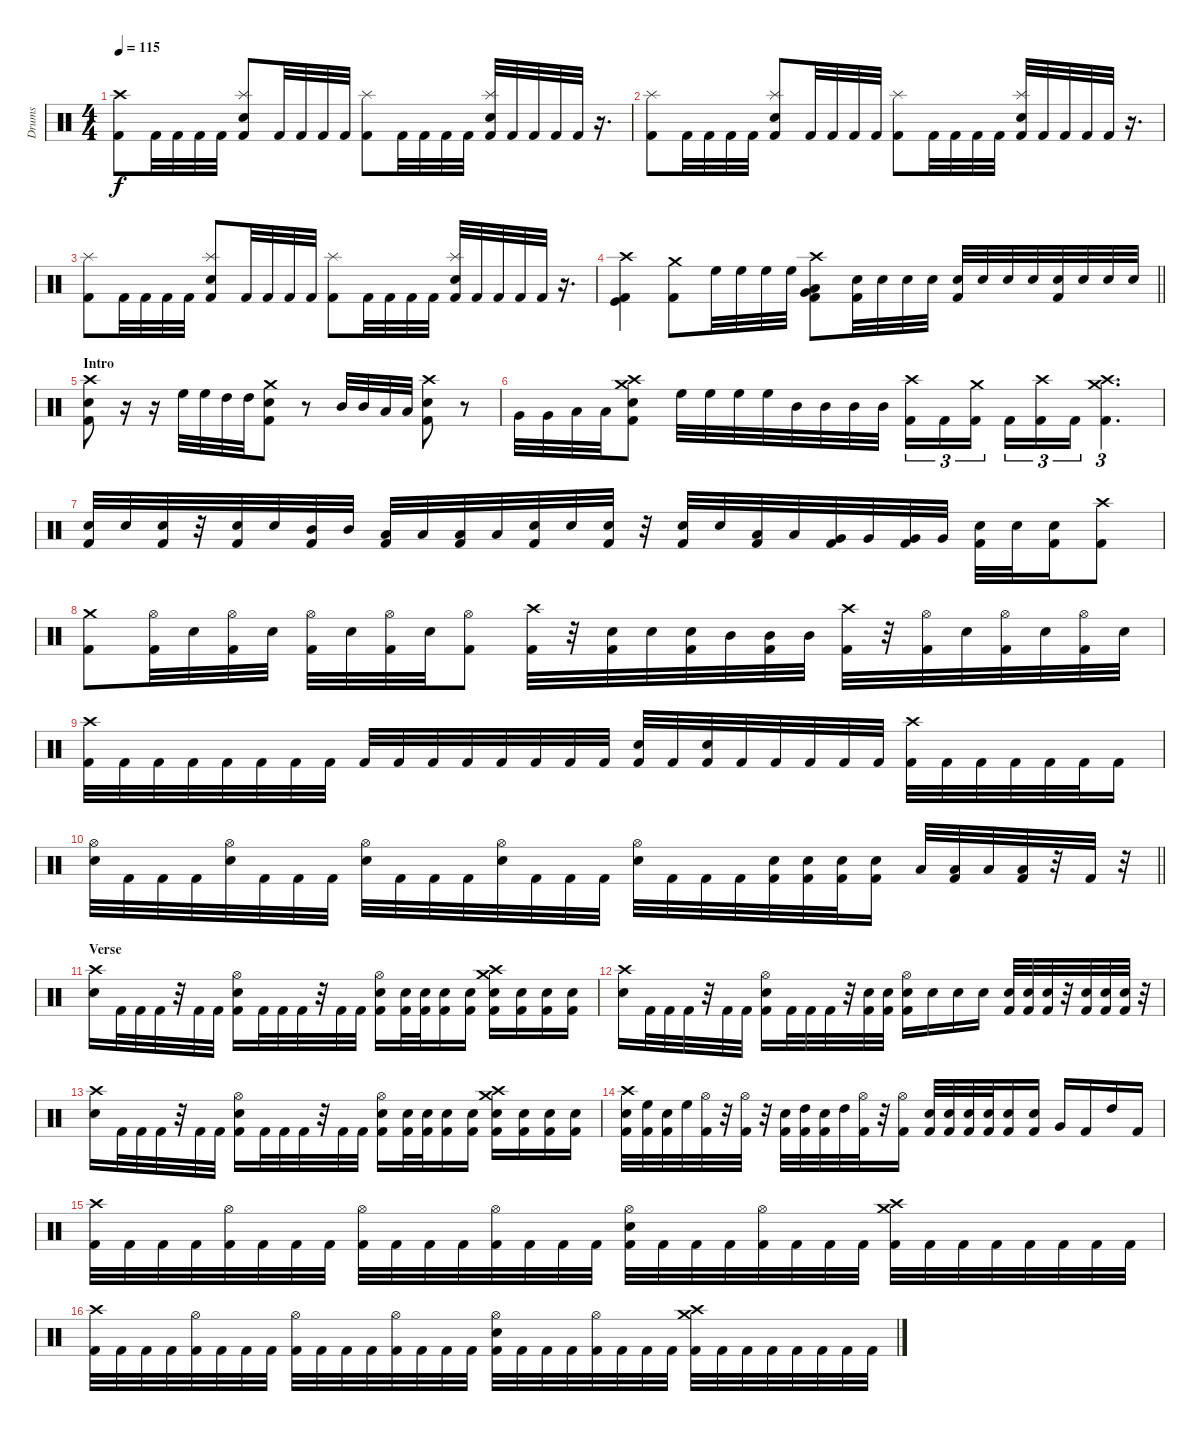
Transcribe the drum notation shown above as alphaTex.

\track ("Drums" "Drums") {instrument percussion}
\staff {score}
\articulation defaults
\ts (4 4)
\tempo 115
\clef neutral
\ks c
("Crash high (hit)" "Kick (hit) 2").8{dy f} "Kick (hit) 2".32 "Kick (hit) 2".32 "Kick (hit) 2".32 "Kick (hit) 2".32 ("Splash (hit)" "Electric Snare (hit)" "Kick (hit) 2").8 "Kick (hit) 2".32 "Kick (hit) 2".32 "Kick (hit) 2".32 "Kick (hit) 2".32 ("Splash (hit)" "Kick (hit) 2").8 "Kick (hit) 2".32 "Kick (hit) 2".32 "Kick (hit) 2".32 "Kick (hit) 2".32 ("Splash (hit)" "Electric Snare (hit)" "Kick (hit) 2").32 "Kick (hit) 2".32 "Kick (hit) 2".32 "Kick (hit) 2".32 "Kick (hit) 2".32 r.16{d} |
("Splash (hit)" "Kick (hit) 2").8 "Kick (hit) 2".32 "Kick (hit) 2".32 "Kick (hit) 2".32 "Kick (hit) 2".32 ("Splash (hit)" "Electric Snare (hit)" "Kick (hit) 2").8 "Kick (hit) 2".32 "Kick (hit) 2".32 "Kick (hit) 2".32 "Kick (hit) 2".32 ("Splash (hit)" "Kick (hit) 2").8 "Kick (hit) 2".32 "Kick (hit) 2".32 "Kick (hit) 2".32 "Kick (hit) 2".32 ("Splash (hit)" "Electric Snare (hit)" "Kick (hit) 2").32 "Kick (hit) 2".32 "Kick (hit) 2".32 "Kick (hit) 2".32 "Kick (hit) 2".32 r.16{d} |
("Splash (hit)" "Kick (hit) 2").8 "Kick (hit) 2".32 "Kick (hit) 2".32 "Kick (hit) 2".32 "Kick (hit) 2".32 ("Splash (hit)" "Electric Snare (hit)" "Kick (hit) 2").8 "Kick (hit) 2".32 "Kick (hit) 2".32 "Kick (hit) 2".32 "Kick (hit) 2".32 ("Splash (hit)" "Kick (hit) 2").8 "Kick (hit) 2".32 "Kick (hit) 2".32 "Kick (hit) 2".32 "Kick (hit) 2".32 ("Splash (hit)" "Electric Snare (hit)" "Kick (hit) 2").32 "Kick (hit) 2".32 "Kick (hit) 2".32 "Kick (hit) 2".32 "Kick (hit) 2".32 r.16{d} |
\barLineRight lightlight
("Crash high (hit)" "Kick (hit)" "Kick (hit) 2").4 ("Crash medium (hit)" "Kick (hit) 2").8 "High Floor Tom (hit)".32 "High Floor Tom (hit)".32 "High Floor Tom (hit)".32 "High Floor Tom (hit)".32 ("Crash high (hit)" "Low Floor Tom (hit)" "Very Low Tom (hit)" "Kick (hit) 2").8 ("Electric Snare (hit)" "Kick (hit) 2").32 "Electric Snare (hit)".32 "Electric Snare (hit)".32 "Electric Snare (hit)".32 ("Electric Snare (hit)" "Kick (hit) 2").32 "Electric Snare (hit)".32 "Electric Snare (hit)".32 "Electric Snare (hit)".32 ("Electric Snare (hit)" "Kick (hit) 2").32 "Electric Snare (hit)".32 "Electric Snare (hit)".32 "Electric Snare (hit)".32 |
\section ("" "Intro")
("Crash high (hit)" "Electric Snare (hit)" "Kick (hit) 2").8 r.16 r.16 "High Floor Tom (hit)".32 "High Floor Tom (hit)".32 "High Tom (hit)".32 "High Tom (hit)".32 ("Crash medium (hit)" "Electric Snare (hit)" "Kick (hit) 2").8 r.8 "Mid Tom (hit)".32 "Mid Tom (hit)".32 "Low Tom (hit)".32 "Low Tom (hit)".32 ("Crash high (hit)" "Electric Snare (hit)" "Kick (hit) 2").8 r.8 |
"Very Low Tom (hit)".32 "Very Low Tom (hit)".32 "Low Floor Tom (hit)".32 "Low Floor Tom (hit)".32 ("Crash high (hit)" "Crash medium (hit)" "Electric Snare (hit)" "Kick (hit) 2").8 "High Floor Tom (hit)".32 "High Floor Tom (hit)".32 "High Floor Tom (hit)".32 "High Floor Tom (hit)".32 "Mid Tom (hit)".32 "Mid Tom (hit)".32 "Mid Tom (hit)".32 "Mid Tom (hit)".32 ("Crash high (hit)" "Kick (hit) 2").16{tu (3 2)} "Kick (hit) 2".16{tu (3 2)} ("Crash medium (hit)" "Kick (hit) 2").16{tu (3 2) beam splitsecondary} "Kick (hit) 2".16{tu (3 2)} ("Crash high (hit)" "Kick (hit) 2").16{tu (3 2)} "Kick (hit) 2".16{tu (3 2)} ("Crash medium (hit)" "Crash high (hit)" "Kick (hit) 2").4{d tu (3 2)} |
("Electric Snare (hit)" "Kick (hit) 2").32 "Electric Snare (hit)".32 ("Electric Snare (hit)" "Kick (hit) 2").32 r.32 ("Electric Snare (hit)" "Kick (hit) 2").32 "Electric Snare (hit)".32 ("Mid Tom (hit)" "Kick (hit) 2").32 "Mid Tom (hit)".32 ("Low Tom (hit)" "Kick (hit) 2").32 "Low Tom (hit)".32 ("Low Tom (hit)" "Kick (hit) 2").32 "Low Tom (hit)".32 ("Electric Snare (hit)" "Kick (hit) 2").32 "Electric Snare (hit)".32 ("Electric Snare (hit)" "Kick (hit) 2").32 r.32 ("Electric Snare (hit)" "Kick (hit) 2").32 "Electric Snare (hit)".32 ("Low Tom (hit)" "Kick (hit) 2").32 "Low Tom (hit)".32 ("Very Low Tom (hit)" "Kick (hit) 2").32 "Very Low Tom (hit)".32 ("Very Low Tom (hit)" "Kick (hit) 2").32 "Very Low Tom (hit)".32 ("Electric Snare (hit)" "Kick (hit) 2").32 "Electric Snare (hit)".32 ("Electric Snare (hit)" "Kick (hit) 2").16 ("Crash high (hit)" "Kick (hit) 2").8 |
("Crash medium (hit)" "Kick (hit) 2").8 ("Hi-Hat (open)" "Kick (hit) 2").32 "Electric Snare (hit)".32 ("Hi-Hat (open)" "Kick (hit) 2").32 "Electric Snare (hit)".32 ("Hi-Hat (open)" "Kick (hit) 2").32 "Electric Snare (hit)".32 ("Hi-Hat (open)" "Kick (hit) 2").32 "Electric Snare (hit)".32 ("Hi-Hat (open)" "Kick (hit) 2").8 ("Crash high (hit)" "Kick (hit) 2").32 r.32 ("Electric Snare (hit)" "Kick (hit) 2").32 "Electric Snare (hit)".32 ("Electric Snare (hit)" "Kick (hit) 2").32 "Mid Tom (hit)".32 ("Mid Tom (hit)" "Kick (hit) 2").32 "Mid Tom (hit)".32 ("Crash high (hit)" "Kick (hit) 2").32 r.32 ("Hi-Hat (open)" "Kick (hit) 2").32 "Electric Snare (hit)".32 ("Hi-Hat (open)" "Kick (hit) 2").32 "Electric Snare (hit)".32 ("Hi-Hat (open)" "Kick (hit) 2").32 "Electric Snare (hit)".32 |
("Crash high (hit)" "Kick (hit) 2").32 "Kick (hit) 2".32 "Kick (hit) 2".32 "Kick (hit) 2".32 "Kick (hit) 2".32 "Kick (hit) 2".32 "Kick (hit) 2".32 "Kick (hit) 2".32 "Kick (hit) 2".32 "Kick (hit) 2".32 "Kick (hit) 2".32 "Kick (hit) 2".32 "Kick (hit) 2".32 "Kick (hit) 2".32 "Kick (hit) 2".32 "Kick (hit) 2".32 ("Electric Snare (hit)" "Kick (hit) 2").32 "Kick (hit) 2".32 ("Electric Snare (hit)" "Kick (hit) 2").32 "Kick (hit) 2".32 "Kick (hit) 2".32 "Kick (hit) 2".32 "Kick (hit) 2".32 "Kick (hit) 2".32 ("Crash high (hit)" "Kick (hit) 2").32 "Kick (hit) 2".32 "Kick (hit) 2".32 "Kick (hit) 2".32 "Kick (hit) 2".32 "Kick (hit) 2".32 "Kick (hit) 2".16 |
\barLineRight lightlight
("Hi-Hat (open)" "Electric Snare (hit)").32 "Kick (hit) 2".32 "Kick (hit) 2".32 "Kick (hit) 2".32 ("Hi-Hat (open)" "Electric Snare (hit)").32 "Kick (hit) 2".32 "Kick (hit) 2".32 "Kick (hit) 2".32 ("Hi-Hat (open)" "Electric Snare (hit)").32 "Kick (hit) 2".32 "Kick (hit) 2".32 "Kick (hit) 2".32 ("Hi-Hat (open)" "Electric Snare (hit)").32 "Kick (hit) 2".32 "Kick (hit) 2".32 "Kick (hit) 2".32 ("Hi-Hat (open)" "Electric Snare (hit)").32 "Kick (hit) 2".32 "Kick (hit) 2".32 "Kick (hit) 2".32 ("Electric Snare (hit)" "Kick (hit) 2").32 ("Electric Snare (hit)" "Kick (hit) 2").32 ("Electric Snare (hit)" "Kick (hit) 2").32 ("Electric Snare (hit)" "Kick (hit) 2").16 "Low Tom (hit)".32 ("Low Tom (hit)" "Kick (hit) 2").32 "Low Tom (hit)".32 ("Low Tom (hit)" "Kick (hit) 2").32 r.32 "Kick (hit) 2".32 r.32 |
\section ("" "Verse")
("Crash high (hit)" "Electric Snare (hit)").16 "Kick (hit) 2".32 "Kick (hit) 2".32 "Kick (hit) 2".32 r.32 "Kick (hit) 2".32 "Kick (hit) 2".32 ("Hi-Hat (open)" "Electric Snare (hit)" "Kick (hit) 2").16 "Kick (hit) 2".32 "Kick (hit) 2".32 "Kick (hit) 2".32 r.32 "Kick (hit) 2".32 "Kick (hit) 2".32 ("Hi-Hat (open)" "Electric Snare (hit)" "Kick (hit) 2").16 ("Electric Snare (hit)" "Kick (hit) 2").32 ("Electric Snare (hit)" "Kick (hit) 2").32 ("Electric Snare (hit)" "Kick (hit) 2").16 ("Electric Snare (hit)" "Kick (hit) 2").16 ("Crash medium (hit)" "Crash high (hit)" "Electric Snare (hit)" "Kick (hit) 2").16 ("Electric Snare (hit)" "Kick (hit) 2").16 ("Electric Snare (hit)" "Kick (hit) 2").16 ("Electric Snare (hit)" "Kick (hit) 2").16 |
("Crash high (hit)" "Electric Snare (hit)").16 "Kick (hit) 2".32 "Kick (hit) 2".32 "Kick (hit) 2".32 r.32 "Kick (hit) 2".32 "Kick (hit) 2".32 ("Hi-Hat (open)" "Electric Snare (hit)" "Kick (hit) 2").16 "Kick (hit) 2".32 "Kick (hit) 2".32 "Kick (hit) 2".32 r.32 ("Electric Snare (hit)" "Kick (hit) 2").32 ("Electric Snare (hit)" "Kick (hit) 2").32 ("Hi-Hat (open)" "Electric Snare (hit)" "Kick (hit) 2").16 "Electric Snare (hit)".16 "Electric Snare (hit)".16 "Electric Snare (hit)".16 ("Electric Snare (hit)" "Kick (hit) 2").32 ("Electric Snare (hit)" "Kick (hit) 2").32 ("Electric Snare (hit)" "Kick (hit) 2").32 r.32 ("Electric Snare (hit)" "Kick (hit) 2").32 ("Electric Snare (hit)" "Kick (hit) 2").32 ("Electric Snare (hit)" "Kick (hit) 2").32 r.32 |
("Crash high (hit)" "Electric Snare (hit)").16 "Kick (hit) 2".32 "Kick (hit) 2".32 "Kick (hit) 2".32 r.32 "Kick (hit) 2".32 "Kick (hit) 2".32 ("Hi-Hat (open)" "Electric Snare (hit)" "Kick (hit) 2").16 "Kick (hit) 2".32 "Kick (hit) 2".32 "Kick (hit) 2".32 r.32 "Kick (hit) 2".32 "Kick (hit) 2".32 ("Hi-Hat (open)" "Electric Snare (hit)" "Kick (hit) 2").16 ("Electric Snare (hit)" "Kick (hit) 2").32 ("Electric Snare (hit)" "Kick (hit) 2").32 ("Electric Snare (hit)" "Kick (hit) 2").16 ("Electric Snare (hit)" "Kick (hit) 2").16 ("Crash medium (hit)" "Crash high (hit)" "Electric Snare (hit)" "Kick (hit) 2").16 ("Electric Snare (hit)" "Kick (hit) 2").16 ("Electric Snare (hit)" "Kick (hit) 2").16 ("Electric Snare (hit)" "Kick (hit) 2").16 |
("Crash high (hit)" "Electric Snare (hit)" "Kick (hit) 2").32 ("High Floor Tom (hit)" "Kick (hit) 2").32 ("Electric Snare (hit)" "Kick (hit) 2").32 "High Floor Tom (hit)".32 ("Hi-Hat (open)" "Kick (hit) 2").32 r.32 ("Hi-Hat (open)" "Kick (hit) 2").32 r.32 ("Electric Snare (hit)" "Kick (hit) 2").32 ("High Tom (hit)" "Kick (hit) 2").32 ("Electric Snare (hit)" "Kick (hit) 2").32 "High Tom (hit)".32 ("Hi-Hat (open)" "Kick (hit) 2").32 r.32 ("Hi-Hat (open)" "Kick (hit) 2").16 ("Electric Snare (hit)" "Kick (hit) 2").32 ("Electric Snare (hit)" "Kick (hit) 2").32 ("Electric Snare (hit)" "Kick (hit) 2").32 ("Electric Snare (hit)" "Kick (hit) 2").32 ("Electric Snare (hit)" "Kick (hit) 2").16 ("Electric Snare (hit)" "Kick (hit) 2").16 "Very Low Tom (hit)".16 "Kick (hit) 2".16 "High Tom (hit)".16 "Kick (hit) 2".16 |
("Crash high (hit)" "Kick (hit) 2").32 "Kick (hit) 2".32 "Kick (hit) 2".32 "Kick (hit) 2".32 ("Hi-Hat (open)" "Kick (hit) 2").32 "Kick (hit) 2".32 "Kick (hit) 2".32 "Kick (hit) 2".32 ("Hi-Hat (open)" "Kick (hit) 2").32 "Kick (hit) 2".32 "Kick (hit) 2".32 "Kick (hit) 2".32 ("Hi-Hat (open)" "Kick (hit) 2").32 "Kick (hit) 2".32 "Kick (hit) 2".32 "Kick (hit) 2".32 ("Hi-Hat (open)" "Electric Snare (hit)" "Kick (hit) 2").32 "Kick (hit) 2".32 "Kick (hit) 2".32 "Kick (hit) 2".32 ("Hi-Hat (open)" "Kick (hit) 2").32 "Kick (hit) 2".32 "Kick (hit) 2".32 "Kick (hit) 2".32 ("Crash medium (hit)" "Crash high (hit)" "Kick (hit) 2").32 "Kick (hit) 2".32 "Kick (hit) 2".32 "Kick (hit) 2".32 "Kick (hit) 2".32 "Kick (hit) 2".32 "Kick (hit) 2".32 "Kick (hit) 2".32 |
("Crash high (hit)" "Kick (hit) 2").32 "Kick (hit) 2".32 "Kick (hit) 2".32 "Kick (hit) 2".32 ("Hi-Hat (open)" "Kick (hit) 2").32 "Kick (hit) 2".32 "Kick (hit) 2".32 "Kick (hit) 2".32 ("Hi-Hat (open)" "Kick (hit) 2").32 "Kick (hit) 2".32 "Kick (hit) 2".32 "Kick (hit) 2".32 ("Hi-Hat (open)" "Kick (hit) 2").32 "Kick (hit) 2".32 "Kick (hit) 2".32 "Kick (hit) 2".32 ("Hi-Hat (open)" "Electric Snare (hit)" "Kick (hit) 2").32 "Kick (hit) 2".32 "Kick (hit) 2".32 "Kick (hit) 2".32 ("Hi-Hat (open)" "Kick (hit) 2").32 "Kick (hit) 2".32 "Kick (hit) 2".32 "Kick (hit) 2".32 ("Crash medium (hit)" "Crash high (hit)" "Kick (hit) 2").32 "Kick (hit) 2".32 "Kick (hit) 2".32 "Kick (hit) 2".32 "Kick (hit) 2".32 "Kick (hit) 2".32 "Kick (hit) 2".32 "Kick (hit) 2".32
